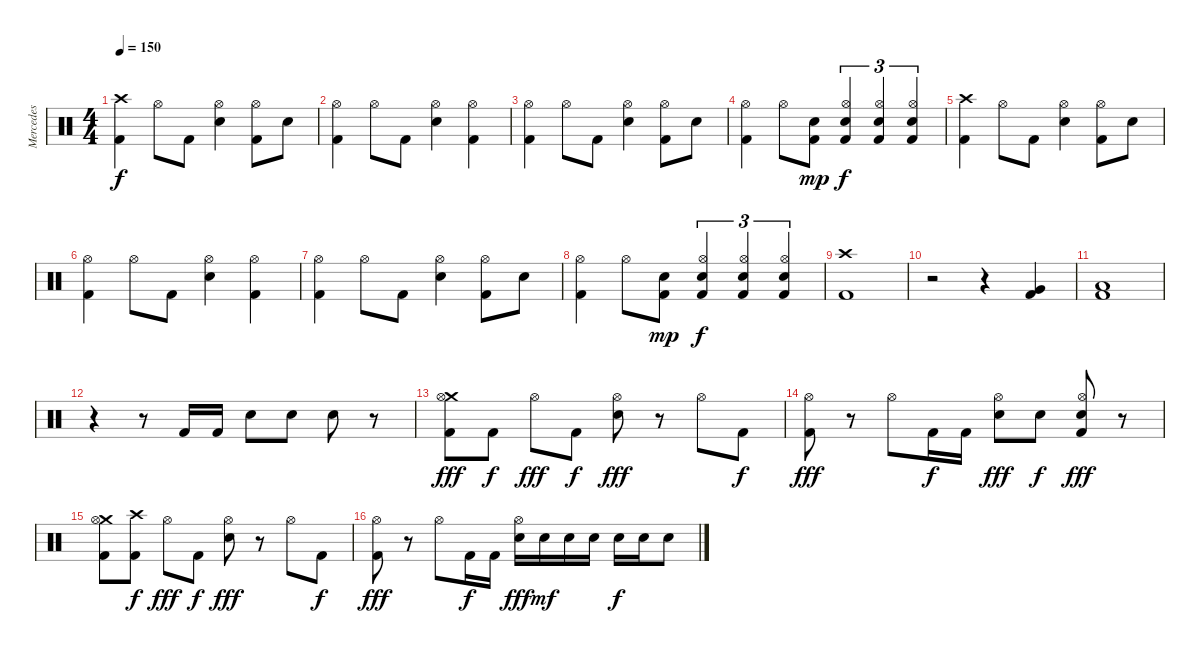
\track ("Mercedes" "Mercedes") {instrument percussion}
\staff {score}
\articulation defaults
\ts (4 4)
\tempo 150
\clef neutral
\ks c
("Crash high (hit)" "Kick (hit) 2").4{dy f} "Hi-Hat (open)".8 "Kick (hit) 2".8 ("Hi-Hat (open)" "Electric Snare (hit)").4 ("Hi-Hat (open)" "Kick (hit) 2").8 "Electric Snare (hit)".8 |
("Hi-Hat (open)" "Kick (hit) 2").4 "Hi-Hat (open)".8 "Kick (hit) 2".8 ("Hi-Hat (open)" "Electric Snare (hit)").4 ("Hi-Hat (open)" "Kick (hit) 2").4 |
("Hi-Hat (open)" "Kick (hit) 2").4 "Hi-Hat (open)".8 "Kick (hit) 2".8 ("Hi-Hat (open)" "Electric Snare (hit)").4 ("Hi-Hat (open)" "Kick (hit) 2").8 "Electric Snare (hit)".8 |
("Hi-Hat (open)" "Kick (hit) 2").4 "Hi-Hat (open)".8 ("Electric Snare (hit)" "Kick (hit) 2").8{dy mp} ("Hi-Hat (open)" "Electric Snare (hit)" "Kick (hit) 2").4{tu (3 2) dy f} ("Hi-Hat (open)" "Electric Snare (hit)" "Kick (hit) 2").4{tu (3 2)} ("Hi-Hat (open)" "Electric Snare (hit)" "Kick (hit) 2").4{tu (3 2)} |
("Crash high (hit)" "Kick (hit) 2").4 "Hi-Hat (open)".8 "Kick (hit) 2".8 ("Hi-Hat (open)" "Electric Snare (hit)").4 ("Hi-Hat (open)" "Kick (hit) 2").8 "Electric Snare (hit)".8 |
("Hi-Hat (open)" "Kick (hit) 2").4 "Hi-Hat (open)".8 "Kick (hit) 2".8 ("Hi-Hat (open)" "Electric Snare (hit)").4 ("Hi-Hat (open)" "Kick (hit) 2").4 |
("Hi-Hat (open)" "Kick (hit) 2").4 "Hi-Hat (open)".8 "Kick (hit) 2".8 ("Hi-Hat (open)" "Electric Snare (hit)").4 ("Hi-Hat (open)" "Kick (hit) 2").8 "Electric Snare (hit)".8 |
("Hi-Hat (open)" "Kick (hit) 2").4 "Hi-Hat (open)".8 ("Electric Snare (hit)" "Kick (hit) 2").8{dy mp} ("Hi-Hat (open)" "Electric Snare (hit)" "Kick (hit) 2").4{tu (3 2) dy f} ("Hi-Hat (open)" "Electric Snare (hit)" "Kick (hit) 2").4{tu (3 2)} ("Hi-Hat (open)" "Electric Snare (hit)" "Kick (hit) 2").4{tu (3 2)} |
("Crash high (hit)" "Kick (hit) 2").1 |
r.2 r.4 ("Very Low Tom (hit)" "Kick (hit) 2").4 |
("Low Floor Tom (hit)" "Kick (hit) 2").1 |
r.4 r.8 "Kick (hit) 2".16 "Kick (hit) 2".16 "Electric Snare (hit)".8 "Electric Snare (hit)".8 "Electric Snare (hit)".8 r.8 |
("Crash medium (hit)" "Hi-Hat (open)" "Kick (hit) 2").8{dy fff} "Kick (hit) 2".8{dy f} "Hi-Hat (open)".8{dy fff} "Kick (hit) 2".8{dy f} ("Hi-Hat (open)" "Electric Snare (hit)").8{dy fff} r.8 "Hi-Hat (open)".8 "Kick (hit) 2".8{dy f} |
("Hi-Hat (open)" "Kick (hit) 2").8{dy fff} r.8 "Hi-Hat (open)".8 "Kick (hit) 2".16{dy f} "Kick (hit) 2".16 ("Hi-Hat (open)" "Electric Snare (hit)").8{dy fff} "Electric Snare (hit)".8{dy f} ("Hi-Hat (open)" "Electric Snare (hit)" "Kick (hit) 2").8{dy fff} r.8 |
("Crash medium (hit)" "Hi-Hat (open)" "Kick (hit) 2").8 ("Crash high (hit)" "Kick (hit) 2").8{dy f} "Hi-Hat (open)".8{dy fff} "Kick (hit) 2".8{dy f} ("Hi-Hat (open)" "Electric Snare (hit)").8{dy fff} r.8 "Hi-Hat (open)".8 "Kick (hit) 2".8{dy f} |
("Hi-Hat (open)" "Kick (hit) 2").8{dy fff} r.8 "Hi-Hat (open)".8 "Kick (hit) 2".16{dy f} "Kick (hit) 2".16 ("Hi-Hat (open)" "Electric Snare (hit)").16{dy fff} "Electric Snare (hit)".16{dy mf} "Electric Snare (hit)".16 "Electric Snare (hit)".16 "Electric Snare (hit)".16{dy f} "Electric Snare (hit)".16 "Electric Snare (hit)".8
